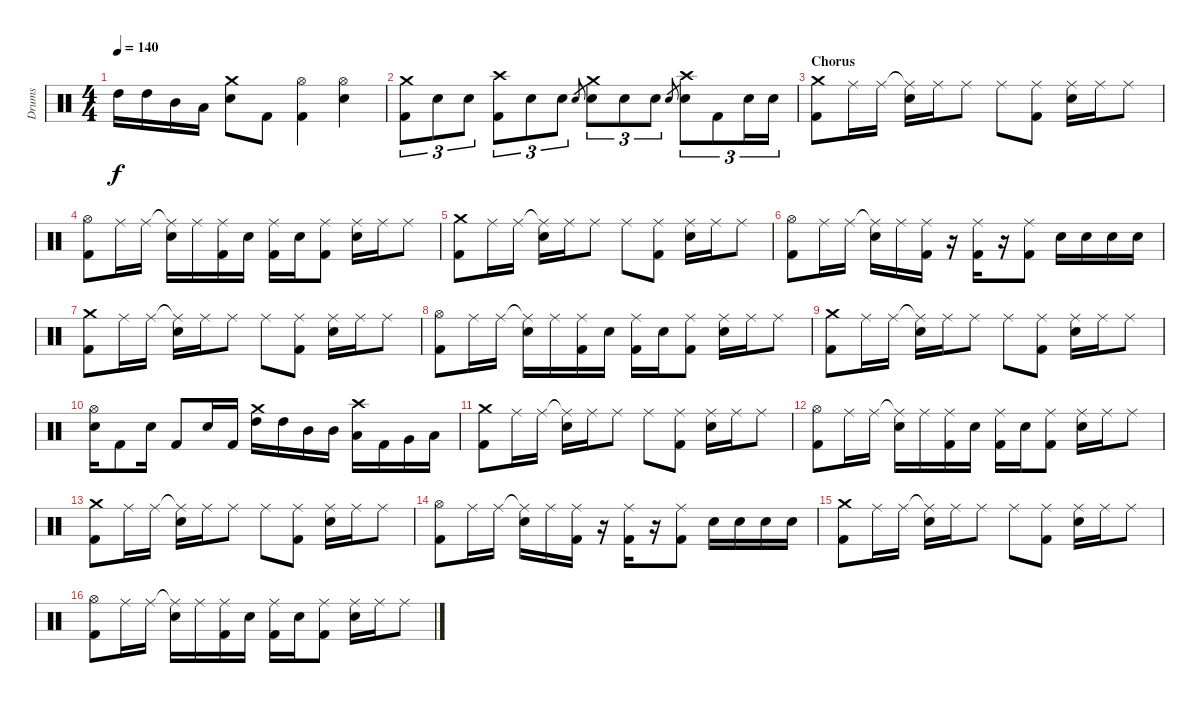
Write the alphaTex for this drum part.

\track ("Drums" "Drums") {instrument percussion}
\staff {score}
\articulation defaults
\ts (4 4)
\tempo 140
\clef neutral
\ks c "High Tom (hit)".16{dy f} "High Tom (hit)".16 "Mid Tom (hit)".16 "Low Tom (hit)".16
("Crash medium (hit)" "Snare (hit) 2").8 "Kick (hit) 2".8 ("Hi-Hat (open)" "Kick (hit) 2").4 ("Hi-Hat (open)" "Snare (hit) 2").4 |
("Crash medium (hit)" "Kick (hit) 2").8{tu (3 2)} "Snare (hit) 2".8{tu (3 2)} "Snare (hit) 2".8{tu (3 2)} ("Crash high (hit)" "Kick (hit) 2").8{tu (3 2)} "Snare (hit) 2".8{tu (3 2)} "Snare (hit) 2".8{tu (3 2)} "Snare (hit) 2".8{gr} ("Crash medium (hit)" "Snare (hit) 2").8{tu (3 2)} "Snare (hit) 2".8{tu (3 2)} "Snare (hit) 2".8{tu (3 2)} "Snare (hit) 2".8{gr} ("Crash high (hit)" "Snare (hit) 2").8{tu (3 2)} "Kick (hit) 2".8{tu (3 2)} "Snare (hit) 2".16{tu (3 2)} "Snare (hit) 2".16{tu (3 2)} |
\section ("" "Chorus")
("Crash medium (hit)" "Kick (hit) 2").8 "Ride (middle)".16 "Ride (middle)".16 ("Ride (middle)"{t} "Snare (hit) 2").16 "Ride (middle)".16 "Ride (middle)".8 "Ride (middle)".8 ("Ride (middle)" "Kick (hit) 2").8 ("Ride (middle)" "Snare (hit) 2").16 "Ride (middle)".16 "Ride (middle)".8 |
("Hi-Hat (open)" "Kick (hit) 2").8 "Ride (middle)".16 "Ride (middle)".16 ("Ride (middle)"{t} "Snare (hit) 2").16 "Ride (middle)".16 ("Ride (middle)" "Kick (hit) 2").16 "Snare (hit) 2".16 ("Ride (middle)" "Kick (hit) 2").16 "Snare (hit) 2".16 ("Ride (middle)" "Kick (hit) 2").8 ("Ride (middle)" "Snare (hit) 2").16 "Ride (middle)".16 "Ride (middle)".8 |
("Crash medium (hit)" "Kick (hit) 2").8 "Ride (middle)".16 "Ride (middle)".16 ("Ride (middle)"{t} "Snare (hit) 2").16 "Ride (middle)".16 "Ride (middle)".8 "Ride (middle)".8 ("Ride (middle)" "Kick (hit) 2").8 ("Ride (middle)" "Snare (hit) 2").16 "Ride (middle)".16 "Ride (middle)".8 |
("Hi-Hat (open)" "Kick (hit) 2").8 "Ride (middle)".16 "Ride (middle)".16 ("Ride (middle)"{t} "Snare (hit) 2").16 "Ride (middle)".16 ("Ride (middle)" "Kick (hit) 2").16 r.16 ("Ride (middle)" "Kick (hit) 2").16 r.16 ("Ride (middle)" "Kick (hit) 2").8 "Snare (hit) 2".16 "Snare (hit) 2".16 "Snare (hit) 2".16 "Snare (hit) 2".16 |
("Crash medium (hit)" "Kick (hit) 2").8 "Ride (middle)".16 "Ride (middle)".16 ("Ride (middle)"{t} "Snare (hit) 2").16 "Ride (middle)".16 "Ride (middle)".8 "Ride (middle)".8 ("Ride (middle)" "Kick (hit) 2").8 ("Ride (middle)" "Snare (hit) 2").16 "Ride (middle)".16 "Ride (middle)".8 |
("Hi-Hat (open)" "Kick (hit) 2").8 "Ride (middle)".16 "Ride (middle)".16 ("Ride (middle)"{t} "Snare (hit) 2").16 "Ride (middle)".16 ("Ride (middle)" "Kick (hit) 2").16 "Snare (hit) 2".16 ("Ride (middle)" "Kick (hit) 2").16 "Snare (hit) 2".16 ("Ride (middle)" "Kick (hit) 2").8 ("Ride (middle)" "Snare (hit) 2").16 "Ride (middle)".16 "Ride (middle)".8 |
("Crash medium (hit)" "Kick (hit) 2").8 "Ride (middle)".16 "Ride (middle)".16 ("Ride (middle)"{t} "Snare (hit) 2").16 "Ride (middle)".16 "Ride (middle)".8 "Ride (middle)".8 ("Ride (middle)" "Kick (hit) 2").8 ("Ride (middle)" "Snare (hit) 2").16 "Ride (middle)".16 "Ride (middle)".8 |
("Hi-Hat (open)" "Snare (hit) 2").16 "Kick (hit) 2".8 "Snare (hit) 2".16 "Kick (hit) 2".8 "Snare (hit) 2".16 "Kick (hit) 2".16 ("Crash medium (hit)" "High Tom (hit)").16 "High Tom (hit)".16 "Mid Tom (hit)".16 "Mid Tom (hit)".16 ("Crash high (hit)" "Low Tom (hit)").16 "Kick (hit) 2".16 "Very Low Tom (hit)".16 "Low Floor Tom (hit)".16 |
("Crash medium (hit)" "Kick (hit) 2").8 "Ride (middle)".16 "Ride (middle)".16 ("Ride (middle)"{t} "Snare (hit) 2").16 "Ride (middle)".16 "Ride (middle)".8 "Ride (middle)".8 ("Ride (middle)" "Kick (hit) 2").8 ("Ride (middle)" "Snare (hit) 2").16 "Ride (middle)".16 "Ride (middle)".8 |
("Hi-Hat (open)" "Kick (hit) 2").8 "Ride (middle)".16 "Ride (middle)".16 ("Ride (middle)"{t} "Snare (hit) 2").16 "Ride (middle)".16 ("Ride (middle)" "Kick (hit) 2").16 "Snare (hit) 2".16 ("Ride (middle)" "Kick (hit) 2").16 "Snare (hit) 2".16 ("Ride (middle)" "Kick (hit) 2").8 ("Ride (middle)" "Snare (hit) 2").16 "Ride (middle)".16 "Ride (middle)".8 |
("Crash medium (hit)" "Kick (hit) 2").8 "Ride (middle)".16 "Ride (middle)".16 ("Ride (middle)"{t} "Snare (hit) 2").16 "Ride (middle)".16 "Ride (middle)".8 "Ride (middle)".8 ("Ride (middle)" "Kick (hit) 2").8 ("Ride (middle)" "Snare (hit) 2").16 "Ride (middle)".16 "Ride (middle)".8 |
("Hi-Hat (open)" "Kick (hit) 2").8 "Ride (middle)".16 "Ride (middle)".16 ("Ride (middle)"{t} "Snare (hit) 2").16 "Ride (middle)".16 ("Ride (middle)" "Kick (hit) 2").16 r.16 ("Ride (middle)" "Kick (hit) 2").16 r.16 ("Ride (middle)" "Kick (hit) 2").8 "Snare (hit) 2".16 "Snare (hit) 2".16 "Snare (hit) 2".16 "Snare (hit) 2".16 |
("Crash medium (hit)" "Kick (hit) 2").8 "Ride (middle)".16 "Ride (middle)".16 ("Ride (middle)"{t} "Snare (hit) 2").16 "Ride (middle)".16 "Ride (middle)".8 "Ride (middle)".8 ("Ride (middle)" "Kick (hit) 2").8 ("Ride (middle)" "Snare (hit) 2").16 "Ride (middle)".16 "Ride (middle)".8 |
("Hi-Hat (open)" "Kick (hit) 2").8 "Ride (middle)".16 "Ride (middle)".16 ("Ride (middle)"{t} "Snare (hit) 2").16 "Ride (middle)".16 ("Ride (middle)" "Kick (hit) 2").16 "Snare (hit) 2".16 ("Ride (middle)" "Kick (hit) 2").16 "Snare (hit) 2".16 ("Ride (middle)" "Kick (hit) 2").8 ("Ride (middle)" "Snare (hit) 2").16 "Ride (middle)".16 "Ride (middle)".8
